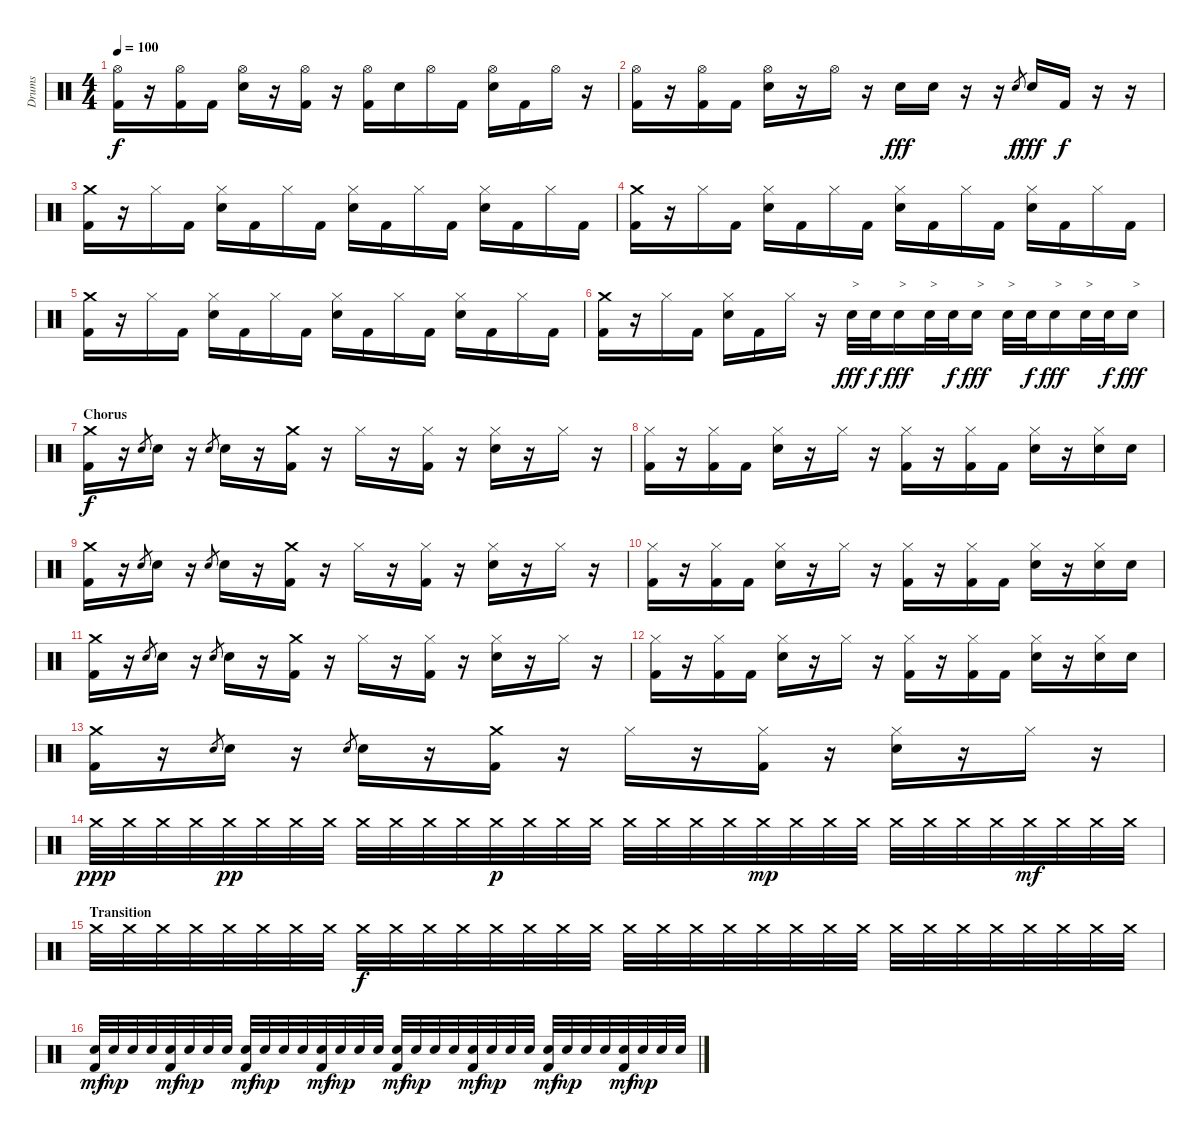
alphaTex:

\track ("Drums" "Drums") {instrument percussion}
\staff {score}
\articulation defaults
\ts (4 4)
\tempo 100
\clef neutral
\ks c
("Hi-Hat (open)" "Kick (hit) 2").16{dy f} r.16 ("Hi-Hat (open)" "Kick (hit) 2").16 "Kick (hit) 2".16 ("Hi-Hat (open)" "Snare (hit) 2").16 r.16 ("Hi-Hat (open)" "Kick (hit) 2").16 r.16 ("Hi-Hat (open)" "Kick (hit) 2").16 "Snare (hit) 2".16 "Hi-Hat (open)".16 "Kick (hit) 2".16 ("Hi-Hat (open)" "Snare (hit) 2").16 "Kick (hit) 2".16 "Hi-Hat (open)".16 r.16 |
("Hi-Hat (open)" "Kick (hit) 2").16 r.16 ("Hi-Hat (open)" "Kick (hit) 2").16 "Kick (hit) 2".16 ("Hi-Hat (open)" "Snare (hit) 2").16 r.16 "Hi-Hat (open)".16 r.16 "Snare (hit) 2".16{dy fff} "Snare (hit) 2".16 r.16 r.16 "Snare (hit) 2".8{gr dy f} "Snare (hit) 2".16{dy fff} "Kick (hit) 2".16{dy f} r.16 r.16 |
("Crash medium (hit)" "Kick (hit) 2").16 r.16 "Hi-Hat (closed)".16 "Kick (hit) 2".16 ("Hi-Hat (closed)" "Snare (hit) 2").16 "Kick (hit) 2".16 "Hi-Hat (closed)".16 "Kick (hit) 2".16 ("Hi-Hat (closed)" "Snare (hit) 2").16 "Kick (hit) 2".16 "Hi-Hat (closed)".16 "Kick (hit) 2".16 ("Hi-Hat (closed)" "Snare (hit) 2").16 "Kick (hit) 2".16 "Hi-Hat (closed)".16 "Kick (hit) 2".16 |
("Crash medium (hit)" "Kick (hit) 2").16 r.16 "Hi-Hat (closed)".16 "Kick (hit) 2".16 ("Hi-Hat (closed)" "Snare (hit) 2").16 "Kick (hit) 2".16 "Hi-Hat (closed)".16 "Kick (hit) 2".16 ("Hi-Hat (closed)" "Snare (hit) 2").16 "Kick (hit) 2".16 "Hi-Hat (closed)".16 "Kick (hit) 2".16 ("Hi-Hat (closed)" "Snare (hit) 2").16 "Kick (hit) 2".16 "Hi-Hat (closed)".16 "Kick (hit) 2".16 |
("Crash medium (hit)" "Kick (hit) 2").16 r.16 "Hi-Hat (closed)".16 "Kick (hit) 2".16 ("Hi-Hat (closed)" "Snare (hit) 2").16 "Kick (hit) 2".16 "Hi-Hat (closed)".16 "Kick (hit) 2".16 ("Hi-Hat (closed)" "Snare (hit) 2").16 "Kick (hit) 2".16 "Hi-Hat (closed)".16 "Kick (hit) 2".16 ("Hi-Hat (closed)" "Snare (hit) 2").16 "Kick (hit) 2".16 "Hi-Hat (closed)".16 "Kick (hit) 2".16 |
("Crash medium (hit)" "Kick (hit) 2").16 r.16 "Hi-Hat (closed)".16 "Kick (hit) 2".16 ("Hi-Hat (closed)" "Snare (hit) 2").16 "Kick (hit) 2".16 "Hi-Hat (closed)".16 r.16 "Snare (hit) 2".32{txt ">" dy fff} "Snare (hit) 2".32{dy f} "Snare (hit) 2".16{txt ">" dy fff} "Snare (hit) 2".32{txt ">"} "Snare (hit) 2".32{dy f} "Snare (hit) 2".16{txt ">" dy fff} "Snare (hit) 2".32{txt ">"} "Snare (hit) 2".32{dy f} "Snare (hit) 2".16{txt ">" dy fff} "Snare (hit) 2".32{txt ">"} "Snare (hit) 2".32{dy f} "Snare (hit) 2".16{txt ">" dy fff} |
\section ("" "Chorus")
("Crash medium (hit)" "Kick (hit) 2").16{dy f} r.16 "Snare (hit) 2".8{gr} "Snare (hit) 2".16 r.16 "Snare (hit) 2".8{gr} "Snare (hit) 2".16 r.16 ("Crash medium (hit)" "Kick (hit) 2").16 r.16 "Hi-Hat (closed)".16 r.16 ("Hi-Hat (closed)" "Kick (hit) 2").16 r.16 ("Hi-Hat (closed)" "Snare (hit) 2").16 r.16 "Hi-Hat (closed)".16 r.16 |
("Hi-Hat (closed)" "Kick (hit) 2").16 r.16 ("Hi-Hat (closed)" "Kick (hit) 2").16 "Kick (hit) 2".16 ("Hi-Hat (closed)" "Snare (hit) 2").16 r.16 "Hi-Hat (closed)".16 r.16 ("Hi-Hat (closed)" "Kick (hit) 2").16 r.16 ("Hi-Hat (closed)" "Kick (hit) 2").16 "Kick (hit) 2".16 ("Hi-Hat (closed)" "Snare (hit) 2").16 r.16 ("Hi-Hat (closed)" "Snare (hit) 2").16 "Snare (hit) 2".16 |
("Crash medium (hit)" "Kick (hit) 2").16 r.16 "Snare (hit) 2".8{gr} "Snare (hit) 2".16 r.16 "Snare (hit) 2".8{gr} "Snare (hit) 2".16 r.16 ("Crash medium (hit)" "Kick (hit) 2").16 r.16 "Hi-Hat (closed)".16 r.16 ("Hi-Hat (closed)" "Kick (hit) 2").16 r.16 ("Hi-Hat (closed)" "Snare (hit) 2").16 r.16 "Hi-Hat (closed)".16 r.16 |
("Hi-Hat (closed)" "Kick (hit) 2").16 r.16 ("Hi-Hat (closed)" "Kick (hit) 2").16 "Kick (hit) 2".16 ("Hi-Hat (closed)" "Snare (hit) 2").16 r.16 "Hi-Hat (closed)".16 r.16 ("Hi-Hat (closed)" "Kick (hit) 2").16 r.16 ("Hi-Hat (closed)" "Kick (hit) 2").16 "Kick (hit) 2".16 ("Hi-Hat (closed)" "Snare (hit) 2").16 r.16 ("Hi-Hat (closed)" "Snare (hit) 2").16 "Snare (hit) 2".16 |
("Crash medium (hit)" "Kick (hit) 2").16 r.16 "Snare (hit) 2".8{gr} "Snare (hit) 2".16 r.16 "Snare (hit) 2".8{gr} "Snare (hit) 2".16 r.16 ("Crash medium (hit)" "Kick (hit) 2").16 r.16 "Hi-Hat (closed)".16 r.16 ("Hi-Hat (closed)" "Kick (hit) 2").16 r.16 ("Hi-Hat (closed)" "Snare (hit) 2").16 r.16 "Hi-Hat (closed)".16 r.16 |
("Hi-Hat (closed)" "Kick (hit) 2").16 r.16 ("Hi-Hat (closed)" "Kick (hit) 2").16 "Kick (hit) 2".16 ("Hi-Hat (closed)" "Snare (hit) 2").16 r.16 "Hi-Hat (closed)".16 r.16 ("Hi-Hat (closed)" "Kick (hit) 2").16 r.16 ("Hi-Hat (closed)" "Kick (hit) 2").16 "Kick (hit) 2".16 ("Hi-Hat (closed)" "Snare (hit) 2").16 r.16 ("Hi-Hat (closed)" "Snare (hit) 2").16 "Snare (hit) 2".16 |
("Crash medium (hit)" "Kick (hit) 2").16 r.16 "Snare (hit) 2".8{gr} "Snare (hit) 2".16 r.16 "Snare (hit) 2".8{gr} "Snare (hit) 2".16 r.16 ("Crash medium (hit)" "Kick (hit) 2").16 r.16 "Hi-Hat (closed)".16 r.16 ("Hi-Hat (closed)" "Kick (hit) 2").16 r.16 ("Hi-Hat (closed)" "Snare (hit) 2").16 r.16 "Hi-Hat (closed)".16 r.16 |
"Crash medium (hit)".32{dy ppp} "Crash medium (hit)".32 "Crash medium (hit)".32 "Crash medium (hit)".32 "Crash medium (hit)".32{dy pp} "Crash medium (hit)".32 "Crash medium (hit)".32 "Crash medium (hit)".32 "Crash medium (hit)".32 "Crash medium (hit)".32 "Crash medium (hit)".32 "Crash medium (hit)".32 "Crash medium (hit)".32{dy p} "Crash medium (hit)".32 "Crash medium (hit)".32 "Crash medium (hit)".32 "Crash medium (hit)".32 "Crash medium (hit)".32 "Crash medium (hit)".32 "Crash medium (hit)".32 "Crash medium (hit)".32{dy mp} "Crash medium (hit)".32 "Crash medium (hit)".32 "Crash medium (hit)".32 "Crash medium (hit)".32 "Crash medium (hit)".32 "Crash medium (hit)".32 "Crash medium (hit)".32 "Crash medium (hit)".32{dy mf} "Crash medium (hit)".32 "Crash medium (hit)".32 "Crash medium (hit)".32 |
\section ("" "Transition")
"Crash medium (hit)".32 "Crash medium (hit)".32 "Crash medium (hit)".32 "Crash medium (hit)".32 "Crash medium (hit)".32 "Crash medium (hit)".32 "Crash medium (hit)".32 "Crash medium (hit)".32 "Crash medium (hit)".32{dy f} "Crash medium (hit)".32 "Crash medium (hit)".32 "Crash medium (hit)".32 "Crash medium (hit)".32 "Crash medium (hit)".32 "Crash medium (hit)".32 "Crash medium (hit)".32 "Crash medium (hit)".32 "Crash medium (hit)".32 "Crash medium (hit)".32 "Crash medium (hit)".32 "Crash medium (hit)".32 "Crash medium (hit)".32 "Crash medium (hit)".32 "Crash medium (hit)".32 "Crash medium (hit)".32 "Crash medium (hit)".32 "Crash medium (hit)".32 "Crash medium (hit)".32 "Crash medium (hit)".32 "Crash medium (hit)".32 "Crash medium (hit)".32 "Crash medium (hit)".32 |
("Snare (hit) 2" "Kick (hit) 2").32{dy mf} "Snare (hit) 2".32{dy mp} "Snare (hit) 2".32 "Snare (hit) 2".32 ("Snare (hit) 2" "Kick (hit) 2").32{dy mf} "Snare (hit) 2".32{dy mp} "Snare (hit) 2".32 "Snare (hit) 2".32 ("Snare (hit) 2" "Kick (hit) 2").32{dy mf} "Snare (hit) 2".32{dy mp} "Snare (hit) 2".32 "Snare (hit) 2".32 ("Snare (hit) 2" "Kick (hit) 2").32{dy mf} "Snare (hit) 2".32{dy mp} "Snare (hit) 2".32 "Snare (hit) 2".32 ("Snare (hit) 2" "Kick (hit) 2").32{dy mf} "Snare (hit) 2".32{dy mp} "Snare (hit) 2".32 "Snare (hit) 2".32 ("Snare (hit) 2" "Kick (hit) 2").32{dy mf} "Snare (hit) 2".32{dy mp} "Snare (hit) 2".32 "Snare (hit) 2".32 ("Snare (hit) 2" "Kick (hit) 2").32{dy mf} "Snare (hit) 2".32{dy mp} "Snare (hit) 2".32 "Snare (hit) 2".32 ("Snare (hit) 2" "Kick (hit) 2").32{dy mf} "Snare (hit) 2".32{dy mp} "Snare (hit) 2".32 "Snare (hit) 2".32
